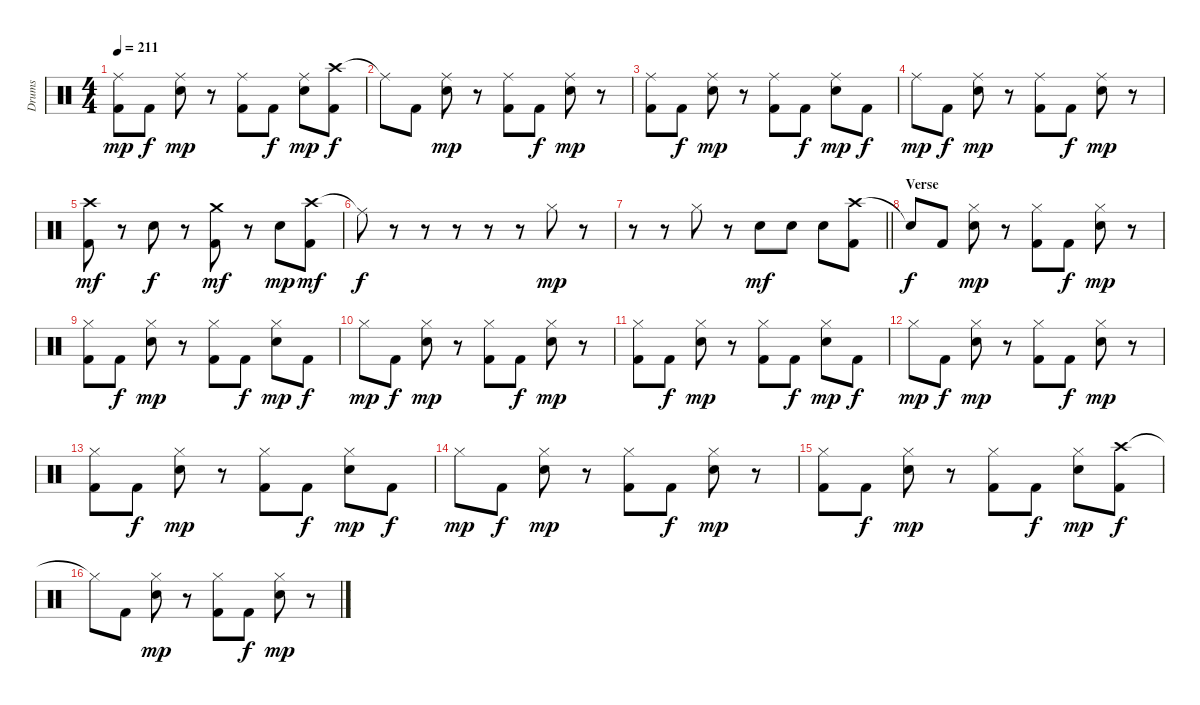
\track ("Drums" "Drums") {instrument percussion}
\staff {score}
\articulation defaults
\ts (4 4)
\tempo 211
\clef neutral
\ks c
("Ride (middle)" "Kick (hit) 2").8{dy mp} "Kick (hit) 2".8{dy f} ("Ride (middle)" "Snare (hit) 2").8{dy mp} r.8 ("Ride (middle)" "Kick (hit) 2").8 "Kick (hit) 2".8{dy f} ("Ride (middle)" "Snare (hit) 2").8{dy mp} ("Crash high (hit)" "Kick (hit) 2").8{dy f} |
"Ride (middle)"{t}.8 "Kick (hit) 2".8 ("Ride (middle)" "Snare (hit) 2").8{dy mp} r.8 ("Ride (middle)" "Kick (hit) 2").8 "Kick (hit) 2".8{dy f} ("Ride (middle)" "Snare (hit) 2").8{dy mp} r.8 |
("Ride (middle)" "Kick (hit) 2").8 "Kick (hit) 2".8{dy f} ("Ride (middle)" "Snare (hit) 2").8{dy mp} r.8 ("Ride (middle)" "Kick (hit) 2").8 "Kick (hit) 2".8{dy f} ("Ride (middle)" "Snare (hit) 2").8{dy mp} "Kick (hit) 2".8{dy f} |
"Ride (middle)".8{dy mp} "Kick (hit) 2".8{dy f} ("Ride (middle)" "Snare (hit) 2").8{dy mp} r.8 ("Ride (middle)" "Kick (hit) 2").8 "Kick (hit) 2".8{dy f} ("Ride (middle)" "Snare (hit) 2").8{dy mp} r.8 |
("Crash high (hit)" "Kick (hit) 2").8{dy mf} r.8 "Snare (hit) 2".8{dy f} r.8 ("Crash medium (hit)" "Kick (hit) 2").8{dy mf} r.8 "Snare (hit) 2".8{dy mp} ("Crash high (hit)" "Kick (hit) 2").8{dy mf} |
"Ride (middle)"{t}.8{dy f} r.8 r.8 r.8 r.8 r.8 "Hi-Hat (closed)".8{dy mp} r.8 |
\barLineRight lightlight
r.8 r.8 "Hi-Hat (closed)".8 r.8 "Snare (hit) 2".8{dy mf} "Snare (hit) 2".8 "Snare (hit) 2".8 ("Crash high (hit)" "Kick (hit) 2").8 |
\section ("" "Verse")
"Snare (hit)"{t}.8{dy f} "Kick (hit) 2".8 ("Hi-Hat (closed)" "Snare (hit) 2").8{dy mp} r.8 ("Hi-Hat (closed)" "Kick (hit) 2").8 "Kick (hit) 2".8{dy f} ("Hi-Hat (closed)" "Snare (hit) 2").8{dy mp} r.8 |
("Hi-Hat (closed)" "Kick (hit) 2").8 "Kick (hit) 2".8{dy f} ("Hi-Hat (closed)" "Snare (hit) 2").8{dy mp} r.8 ("Hi-Hat (closed)" "Kick (hit) 2").8 "Kick (hit) 2".8{dy f} ("Hi-Hat (closed)" "Snare (hit) 2").8{dy mp} "Kick (hit) 2".8{dy f} |
"Hi-Hat (closed)".8{dy mp} "Kick (hit) 2".8{dy f} ("Hi-Hat (closed)" "Snare (hit) 2").8{dy mp} r.8 ("Hi-Hat (closed)" "Kick (hit) 2").8 "Kick (hit) 2".8{dy f} ("Hi-Hat (closed)" "Snare (hit) 2").8{dy mp} r.8 |
("Hi-Hat (closed)" "Kick (hit) 2").8 "Kick (hit) 2".8{dy f} ("Hi-Hat (closed)" "Snare (hit) 2").8{dy mp} r.8 ("Hi-Hat (closed)" "Kick (hit) 2").8 "Kick (hit) 2".8{dy f} ("Hi-Hat (closed)" "Snare (hit) 2").8{dy mp} "Kick (hit) 2".8{dy f} |
"Hi-Hat (closed)".8{dy mp} "Kick (hit) 2".8{dy f} ("Hi-Hat (closed)" "Snare (hit) 2").8{dy mp} r.8 ("Hi-Hat (closed)" "Kick (hit) 2").8 "Kick (hit) 2".8{dy f} ("Hi-Hat (closed)" "Snare (hit) 2").8{dy mp} r.8 |
("Hi-Hat (closed)" "Kick (hit) 2").8 "Kick (hit) 2".8{dy f} ("Hi-Hat (closed)" "Snare (hit) 2").8{dy mp} r.8 ("Hi-Hat (closed)" "Kick (hit) 2").8 "Kick (hit) 2".8{dy f} ("Hi-Hat (closed)" "Snare (hit) 2").8{dy mp} "Kick (hit) 2".8{dy f} |
"Hi-Hat (closed)".8{dy mp} "Kick (hit) 2".8{dy f} ("Hi-Hat (closed)" "Snare (hit) 2").8{dy mp} r.8 ("Hi-Hat (closed)" "Kick (hit) 2").8 "Kick (hit) 2".8{dy f} ("Hi-Hat (closed)" "Snare (hit) 2").8{dy mp} r.8 |
("Hi-Hat (closed)" "Kick (hit) 2").8 "Kick (hit) 2".8{dy f} ("Hi-Hat (closed)" "Snare (hit) 2").8{dy mp} r.8 ("Hi-Hat (closed)" "Kick (hit) 2").8 "Kick (hit) 2".8{dy f} ("Hi-Hat (closed)" "Snare (hit) 2").8{dy mp} ("Crash high (hit)" "Kick (hit) 2").8{dy f} |
"Hi-Hat (closed)"{t}.8 "Kick (hit) 2".8 ("Hi-Hat (closed)" "Snare (hit) 2").8{dy mp} r.8 ("Hi-Hat (closed)" "Kick (hit) 2").8 "Kick (hit) 2".8{dy f} ("Hi-Hat (closed)" "Snare (hit) 2").8{dy mp} r.8
